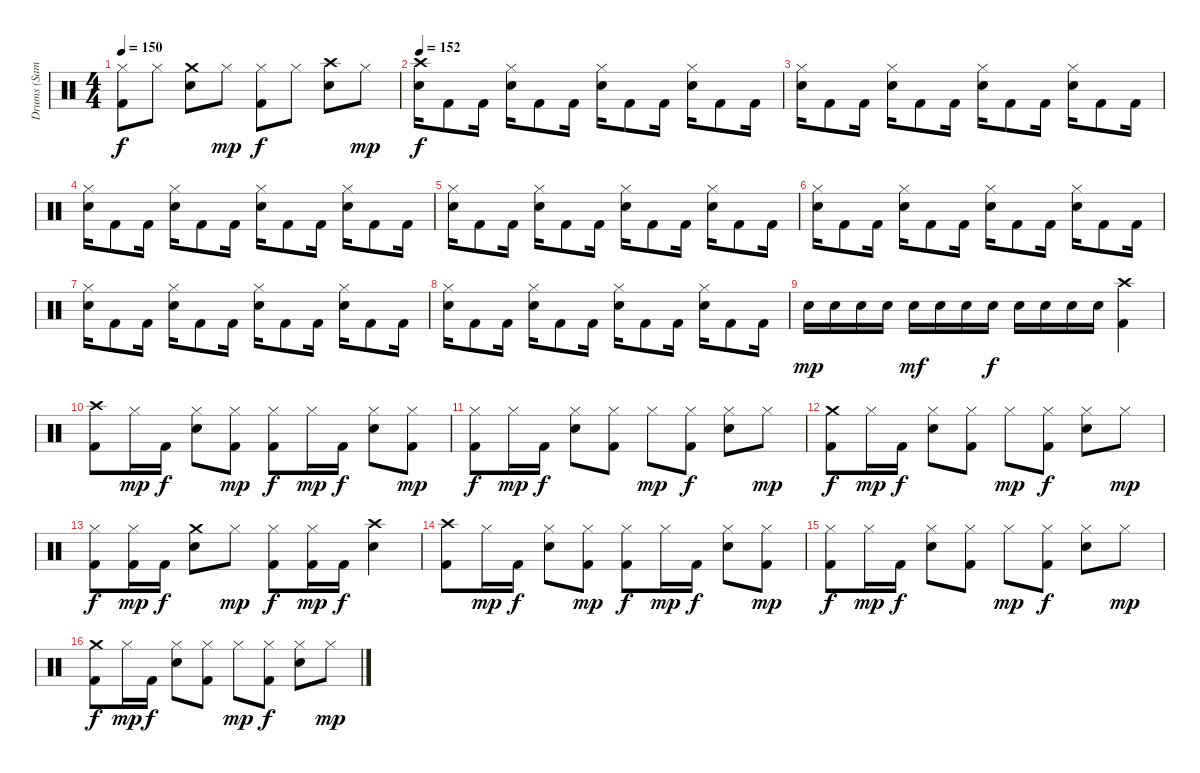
\track ("Drums (Samuelson)" "Drums (Sam") {instrument percussion}
\staff
\articulation defaults
\ts (4 4)
\tempo 150
\clef neutral
\ks c
("Hi-Hat (closed)" "Kick (hit) 2").8{dy f} "Hi-Hat (closed)".8 ("Crash medium (hit)" "Electric Snare (hit)").8 "Hi-Hat (closed)".8{dy mp} ("Hi-Hat (closed)" "Kick (hit) 2").8{dy f} "Hi-Hat (closed)".8 ("Crash high (hit)" "Electric Snare (hit)").8 "Hi-Hat (closed)".8{dy mp} |
\tempo 152
("Crash high (hit)" "Electric Snare (hit)").16{dy f} "Kick (hit) 2".8 "Kick (hit) 2".16 ("Hi-Hat (closed)" "Electric Snare (hit)").16 "Kick (hit) 2".8 "Kick (hit) 2".16 ("Hi-Hat (closed)" "Electric Snare (hit)").16 "Kick (hit) 2".8 "Kick (hit) 2".16 ("Hi-Hat (closed)" "Electric Snare (hit)").16 "Kick (hit) 2".8 "Kick (hit) 2".16 |
("Hi-Hat (closed)" "Electric Snare (hit)").16 "Kick (hit) 2".8 "Kick (hit) 2".16 ("Hi-Hat (closed)" "Electric Snare (hit)").16 "Kick (hit) 2".8 "Kick (hit) 2".16 ("Hi-Hat (closed)" "Electric Snare (hit)").16 "Kick (hit) 2".8 "Kick (hit) 2".16 ("Hi-Hat (closed)" "Electric Snare (hit)").16 "Kick (hit) 2".8 "Kick (hit) 2".16 |
("Hi-Hat (closed)" "Electric Snare (hit)").16 "Kick (hit) 2".8 "Kick (hit) 2".16 ("Hi-Hat (closed)" "Electric Snare (hit)").16 "Kick (hit) 2".8 "Kick (hit) 2".16 ("Hi-Hat (closed)" "Electric Snare (hit)").16 "Kick (hit) 2".8 "Kick (hit) 2".16 ("Hi-Hat (closed)" "Electric Snare (hit)").16 "Kick (hit) 2".8 "Kick (hit) 2".16 |
("Hi-Hat (closed)" "Electric Snare (hit)").16 "Kick (hit) 2".8 "Kick (hit) 2".16 ("Hi-Hat (closed)" "Electric Snare (hit)").16 "Kick (hit) 2".8 "Kick (hit) 2".16 ("Hi-Hat (closed)" "Electric Snare (hit)").16 "Kick (hit) 2".8 "Kick (hit) 2".16 ("Hi-Hat (closed)" "Electric Snare (hit)").16 "Kick (hit) 2".8 "Kick (hit) 2".16 |
("Hi-Hat (closed)" "Electric Snare (hit)").16 "Kick (hit) 2".8 "Kick (hit) 2".16 ("Hi-Hat (closed)" "Electric Snare (hit)").16 "Kick (hit) 2".8 "Kick (hit) 2".16 ("Hi-Hat (closed)" "Electric Snare (hit)").16 "Kick (hit) 2".8 "Kick (hit) 2".16 ("Hi-Hat (closed)" "Electric Snare (hit)").16 "Kick (hit) 2".8 "Kick (hit) 2".16 |
("Hi-Hat (closed)" "Electric Snare (hit)").16 "Kick (hit) 2".8 "Kick (hit) 2".16 ("Hi-Hat (closed)" "Electric Snare (hit)").16 "Kick (hit) 2".8 "Kick (hit) 2".16 ("Hi-Hat (closed)" "Electric Snare (hit)").16 "Kick (hit) 2".8 "Kick (hit) 2".16 ("Hi-Hat (closed)" "Electric Snare (hit)").16 "Kick (hit) 2".8 "Kick (hit) 2".16 |
("Hi-Hat (closed)" "Electric Snare (hit)").16 "Kick (hit) 2".8 "Kick (hit) 2".16 ("Hi-Hat (closed)" "Electric Snare (hit)").16 "Kick (hit) 2".8 "Kick (hit) 2".16 ("Hi-Hat (closed)" "Electric Snare (hit)").16 "Kick (hit) 2".8 "Kick (hit) 2".16 ("Hi-Hat (closed)" "Electric Snare (hit)").16 "Kick (hit) 2".8 "Kick (hit) 2".16 |
"Electric Snare (hit)".16{dy mp} "Electric Snare (hit)".16 "Electric Snare (hit)".16 "Electric Snare (hit)".16 "Electric Snare (hit)".16{dy mf} "Electric Snare (hit)".16 "Electric Snare (hit)".16 "Electric Snare (hit)".16{dy f} "Electric Snare (hit)".16 "Electric Snare (hit)".16 "Electric Snare (hit)".16 "Electric Snare (hit)".16 ("Crash high (hit)" "Kick (hit) 2").4 |
("Crash high (hit)" "Kick (hit) 2").8 "Hi-Hat (closed)".16{dy mp} "Kick (hit) 2".16{dy f} ("Hi-Hat (closed)" "Electric Snare (hit)").8 ("Hi-Hat (closed)" "Kick (hit) 2").8{dy mp} ("Hi-Hat (closed)" "Kick (hit) 2").8{dy f} "Hi-Hat (closed)".16{dy mp} "Kick (hit) 2".16{dy f} ("Hi-Hat (closed)" "Electric Snare (hit)").8 ("Hi-Hat (closed)" "Kick (hit) 2").8{dy mp} |
("Hi-Hat (closed)" "Kick (hit) 2").8{dy f} "Hi-Hat (closed)".16{dy mp} "Kick (hit) 2".16{dy f} ("Hi-Hat (closed)" "Electric Snare (hit)").8 ("Hi-Hat (closed)" "Kick (hit) 2").8 "Hi-Hat (closed)".8{dy mp} ("Hi-Hat (closed)" "Kick (hit) 2").8{dy f} ("Hi-Hat (closed)" "Electric Snare (hit)").8 "Hi-Hat (closed)".8{dy mp} |
("Crash medium (hit)" "Kick (hit) 2").8{dy f} "Hi-Hat (closed)".16{dy mp} "Kick (hit) 2".16{dy f} ("Hi-Hat (closed)" "Electric Snare (hit)").8 ("Hi-Hat (closed)" "Kick (hit) 2").8 "Hi-Hat (closed)".8{dy mp} ("Hi-Hat (closed)" "Kick (hit) 2").8{dy f} ("Hi-Hat (closed)" "Electric Snare (hit)").8 "Hi-Hat (closed)".8{dy mp} |
("Hi-Hat (closed)" "Kick (hit) 2").8{dy f} ("Hi-Hat (closed)" "Kick (hit) 2").16{dy mp} "Kick (hit) 2".16{dy f} ("Crash medium (hit)" "Electric Snare (hit)").8 "Hi-Hat (closed)".8{dy mp} ("Hi-Hat (closed)" "Kick (hit) 2").8{dy f} ("Hi-Hat (closed)" "Kick (hit) 2").16{dy mp} "Kick (hit) 2".16{dy f} ("Crash high (hit)" "Electric Snare (hit)").4 |
("Crash high (hit)" "Kick (hit) 2").8 "Hi-Hat (closed)".16{dy mp} "Kick (hit) 2".16{dy f} ("Hi-Hat (closed)" "Electric Snare (hit)").8 ("Hi-Hat (closed)" "Kick (hit) 2").8{dy mp} ("Hi-Hat (closed)" "Kick (hit) 2").8{dy f} "Hi-Hat (closed)".16{dy mp} "Kick (hit) 2".16{dy f} ("Hi-Hat (closed)" "Electric Snare (hit)").8 ("Hi-Hat (closed)" "Kick (hit) 2").8{dy mp} |
("Hi-Hat (closed)" "Kick (hit) 2").8{dy f} "Hi-Hat (closed)".16{dy mp} "Kick (hit) 2".16{dy f} ("Hi-Hat (closed)" "Electric Snare (hit)").8 ("Hi-Hat (closed)" "Kick (hit) 2").8 "Hi-Hat (closed)".8{dy mp} ("Hi-Hat (closed)" "Kick (hit) 2").8{dy f} ("Hi-Hat (closed)" "Electric Snare (hit)").8 "Hi-Hat (closed)".8{dy mp} |
("Crash medium (hit)" "Kick (hit) 2").8{dy f} "Hi-Hat (closed)".16{dy mp} "Kick (hit) 2".16{dy f} ("Hi-Hat (closed)" "Electric Snare (hit)").8 ("Hi-Hat (closed)" "Kick (hit) 2").8 "Hi-Hat (closed)".8{dy mp} ("Hi-Hat (closed)" "Kick (hit) 2").8{dy f} ("Hi-Hat (closed)" "Electric Snare (hit)").8 "Hi-Hat (closed)".8{dy mp}
